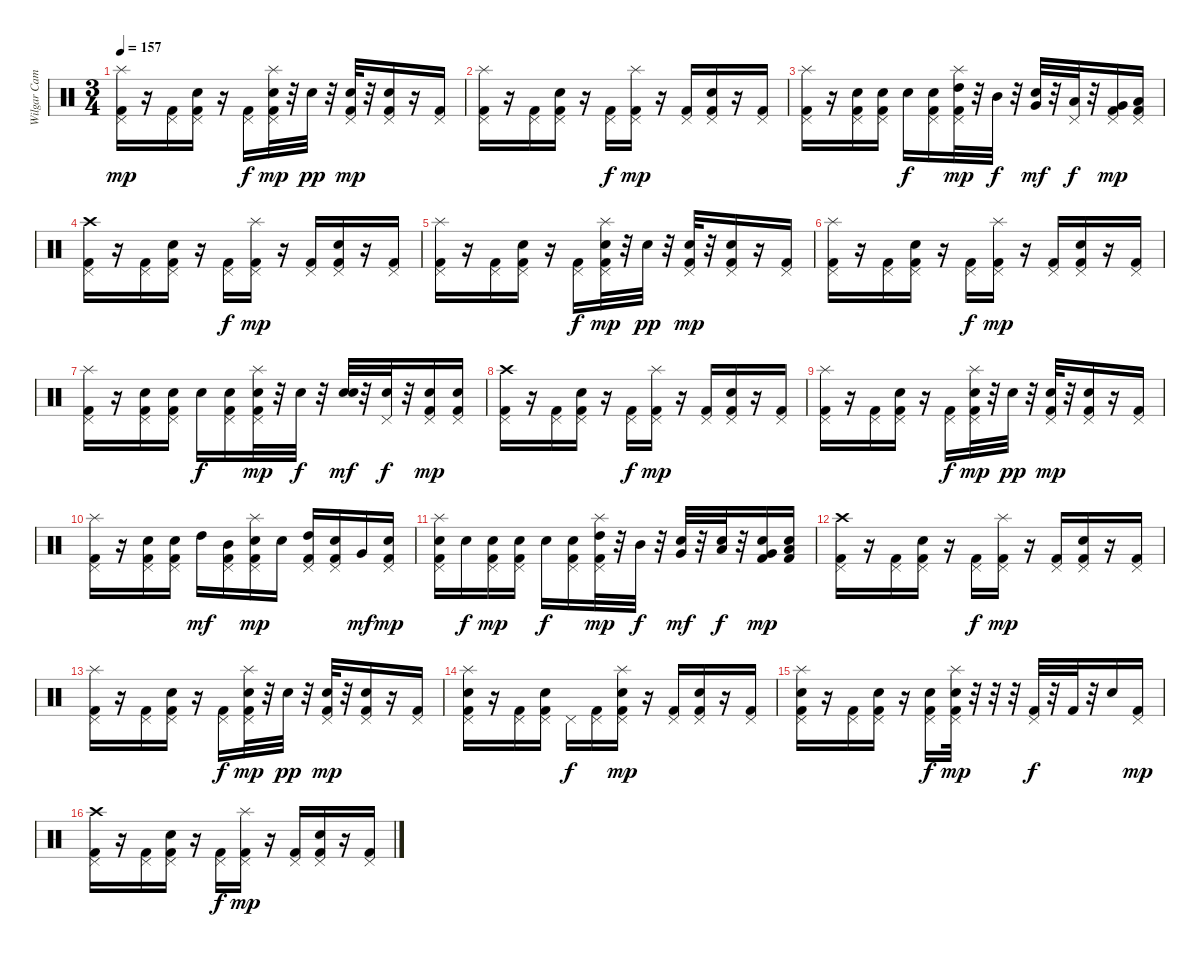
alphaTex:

\track ("Wilgar Campbell" "Wilgar Cam") {instrument percussion}
\staff {score}
\articulation defaults
\ts (3 4)
\tempo 157
\clef neutral
\ks c
("Splash (hit)" "Pedal Hi-Hat (hit)" "Kick (hit) 2").16{dy mp} r.16 ("Pedal Hi-Hat (hit)" "Kick (hit) 2").16 ("Snare (hit) 2" "Pedal Hi-Hat (hit)" "Kick (hit) 2").16 r.16 ("Pedal Hi-Hat (hit)" "Kick (hit) 2").16{dy f} ("Splash (hit)" "Pedal Hi-Hat (hit)" "Electric Snare (hit)" "Kick (hit) 2").32{dy mp} r.32 "Electric Snare (hit)".32{dy pp} r.32 ("Pedal Hi-Hat (hit)" "Electric Snare (hit)" "Kick (hit) 2").32{dy mp} r.32 ("Snare (hit) 2" "Pedal Hi-Hat (hit)" "Kick (hit) 2").16 r.16 ("Pedal Hi-Hat (hit)" "Kick (hit) 2").16 |
("Splash (hit)" "Pedal Hi-Hat (hit)" "Kick (hit) 2").16 r.16 ("Pedal Hi-Hat (hit)" "Kick (hit) 2").16 ("Snare (hit) 2" "Pedal Hi-Hat (hit)" "Kick (hit) 2").16 r.16 ("Pedal Hi-Hat (hit)" "Kick (hit) 2").16{dy f} ("Splash (hit)" "Pedal Hi-Hat (hit)" "Kick (hit) 2").16{dy mp} r.16 ("Pedal Hi-Hat (hit)" "Kick (hit) 2").16 ("Snare (hit) 2" "Pedal Hi-Hat (hit)" "Kick (hit) 2").16 r.16 ("Pedal Hi-Hat (hit)" "Kick (hit) 2").16 |
("Splash (hit)" "Pedal Hi-Hat (hit)" "Kick (hit) 2").16 r.16 ("Electric Snare (hit)" "Pedal Hi-Hat (hit)" "Kick (hit) 2").16 ("Snare (hit) 2" "Pedal Hi-Hat (hit)" "Kick (hit) 2").16 "Snare (hit) 2".16{dy f} ("Snare (hit) 2" "Pedal Hi-Hat (hit)" "Kick (hit) 2").16 ("Splash (hit)" "High Tom (hit)" "Pedal Hi-Hat (hit)" "Kick (hit) 2").32{dy mp} r.32 "Mid Tom (hit)".32{dy f} r.32 ("Very Low Tom (hit)" "Electric Snare (hit)").32{dy mf} r.32 ("Low Tom (hit)" "Pedal Hi-Hat (hit)").32{dy f} r.32 ("Very Low Tom (hit)" "Pedal Hi-Hat (hit)" "Kick (hit) 2").16{dy mp} ("Low Floor Tom (hit)" "Pedal Hi-Hat (hit)" "Kick (hit) 2").16 |
("Crash high (hit)" "Pedal Hi-Hat (hit)" "Kick (hit) 2").16 r.16 ("Pedal Hi-Hat (hit)" "Kick (hit) 2").16 ("Snare (hit) 2" "Pedal Hi-Hat (hit)" "Kick (hit) 2").16 r.16 ("Pedal Hi-Hat (hit)" "Kick (hit) 2").16{dy f} ("Splash (hit)" "Pedal Hi-Hat (hit)" "Kick (hit) 2").16{dy mp} r.16 ("Pedal Hi-Hat (hit)" "Kick (hit) 2").16 ("Snare (hit) 2" "Pedal Hi-Hat (hit)" "Kick (hit) 2").16 r.16 ("Pedal Hi-Hat (hit)" "Kick (hit) 2").16 |
("Splash (hit)" "Pedal Hi-Hat (hit)" "Kick (hit) 2").16 r.16 ("Pedal Hi-Hat (hit)" "Kick (hit) 2").16 ("Snare (hit) 2" "Pedal Hi-Hat (hit)" "Kick (hit) 2").16 r.16 ("Pedal Hi-Hat (hit)" "Kick (hit) 2").16{dy f} ("Splash (hit)" "Pedal Hi-Hat (hit)" "Electric Snare (hit)" "Kick (hit) 2").32{dy mp} r.32 "Electric Snare (hit)".32{dy pp} r.32 ("Pedal Hi-Hat (hit)" "Electric Snare (hit)" "Kick (hit) 2").32{dy mp} r.32 ("Snare (hit) 2" "Pedal Hi-Hat (hit)" "Kick (hit) 2").16 r.16 ("Pedal Hi-Hat (hit)" "Kick (hit) 2").16 |
("Splash (hit)" "Pedal Hi-Hat (hit)" "Kick (hit) 2").16 r.16 ("Pedal Hi-Hat (hit)" "Kick (hit) 2").16 ("Snare (hit) 2" "Pedal Hi-Hat (hit)" "Kick (hit) 2").16 r.16 ("Pedal Hi-Hat (hit)" "Kick (hit) 2").16{dy f} ("Splash (hit)" "Pedal Hi-Hat (hit)" "Kick (hit) 2").16{dy mp} r.16 ("Pedal Hi-Hat (hit)" "Kick (hit) 2").16 ("Snare (hit) 2" "Pedal Hi-Hat (hit)" "Kick (hit) 2").16 r.16 ("Pedal Hi-Hat (hit)" "Kick (hit) 2").16 |
("Splash (hit)" "Pedal Hi-Hat (hit)" "Kick (hit) 2").16 r.16 ("Electric Snare (hit)" "Pedal Hi-Hat (hit)" "Kick (hit) 2").16 ("Snare (hit) 2" "Pedal Hi-Hat (hit)" "Kick (hit) 2").16 "Snare (hit) 2".16{dy f} ("Snare (hit) 2" "Pedal Hi-Hat (hit)" "Kick (hit) 2").16 ("Splash (hit)" "Electric Snare (hit)" "Pedal Hi-Hat (hit)" "Kick (hit) 2").32{dy mp} r.32 "Electric Snare (hit)".32{dy f} r.32 ("Electric Snare (hit)" "Electric Snare (hit)").32{dy mf} r.32 ("Snare (hit) 2" "Pedal Hi-Hat (hit)").32{dy f} r.32 ("Electric Snare (hit)" "Pedal Hi-Hat (hit)" "Kick (hit) 2").16{dy mp} ("Electric Snare (hit)" "Pedal Hi-Hat (hit)" "Kick (hit) 2").16 |
("Crash high (hit)" "Pedal Hi-Hat (hit)" "Kick (hit) 2").16 r.16 ("Pedal Hi-Hat (hit)" "Kick (hit) 2").16 ("Snare (hit) 2" "Pedal Hi-Hat (hit)" "Kick (hit) 2").16 r.16 ("Pedal Hi-Hat (hit)" "Kick (hit) 2").16{dy f} ("Splash (hit)" "Pedal Hi-Hat (hit)" "Kick (hit) 2").16{dy mp} r.16 ("Pedal Hi-Hat (hit)" "Kick (hit) 2").16 ("Snare (hit) 2" "Pedal Hi-Hat (hit)" "Kick (hit) 2").16 r.16 ("Pedal Hi-Hat (hit)" "Kick (hit) 2").16 |
("Splash (hit)" "Pedal Hi-Hat (hit)" "Kick (hit) 2").16 r.16 ("Pedal Hi-Hat (hit)" "Kick (hit) 2").16 ("Snare (hit) 2" "Pedal Hi-Hat (hit)" "Kick (hit) 2").16 r.16 ("Pedal Hi-Hat (hit)" "Kick (hit) 2").16{dy f} ("Splash (hit)" "Pedal Hi-Hat (hit)" "Electric Snare (hit)" "Kick (hit) 2").32{dy mp} r.32 "Electric Snare (hit)".32{dy pp} r.32 ("Pedal Hi-Hat (hit)" "Electric Snare (hit)" "Kick (hit) 2").32{dy mp} r.32 ("Snare (hit) 2" "Pedal Hi-Hat (hit)" "Kick (hit) 2").16 r.16 ("Pedal Hi-Hat (hit)" "Kick (hit) 2").16 |
("Splash (hit)" "Pedal Hi-Hat (hit)" "Kick (hit) 2").16 r.16 ("Snare (hit) 2" "Pedal Hi-Hat (hit)" "Kick (hit) 2").16 ("Snare (hit) 2" "Pedal Hi-Hat (hit)" "Kick (hit) 2").16 "High Tom (hit)".16{dy mf} ("Mid Tom (hit)" "Pedal Hi-Hat (hit)" "Kick (hit) 2").16 ("Splash (hit)" "Electric Snare (hit)" "Pedal Hi-Hat (hit)" "Kick (hit) 2").16{dy mp} "Electric Snare (hit)".16 ("High Tom (hit)" "Pedal Hi-Hat (hit)" "Kick (hit) 2").16 ("Electric Snare (hit)" "Pedal Hi-Hat (hit)" "Kick (hit) 2").16 "Very Low Tom (hit)".16{dy mf} ("Electric Snare (hit)" "Pedal Hi-Hat (hit)" "Kick (hit) 2").16{dy mp} |
("Splash (hit)" "Electric Snare (hit)" "Pedal Hi-Hat (hit)" "Kick (hit) 2").16 "Electric Snare (hit)".16{dy f} ("Electric Snare (hit)" "Pedal Hi-Hat (hit)" "Kick (hit) 2").16{dy mp} ("Snare (hit) 2" "Pedal Hi-Hat (hit)" "Kick (hit) 2").16 "Snare (hit) 2".16{dy f} ("Snare (hit) 2" "Pedal Hi-Hat (hit)" "Kick (hit) 2").16 ("Splash (hit)" "High Tom (hit)" "Pedal Hi-Hat (hit)" "Kick (hit) 2").32{dy mp} r.32 "Mid Tom (hit)".32{dy f} r.32 ("Very Low Tom (hit)" "Electric Snare (hit)").32{dy mf} r.32 ("Low Tom (hit)" "Electric Snare (hit)").32{dy f} r.32 ("Very Low Tom (hit)" "Electric Snare (hit)" "Kick (hit) 2").16{dy mp} ("Low Floor Tom (hit)" "Snare (hit) 2" "Kick (hit) 2").16 |
("Crash high (hit)" "Pedal Hi-Hat (hit)" "Kick (hit) 2").16 r.16 ("Pedal Hi-Hat (hit)" "Kick (hit) 2").16 ("Snare (hit) 2" "Pedal Hi-Hat (hit)" "Kick (hit) 2").16 r.16 ("Pedal Hi-Hat (hit)" "Kick (hit) 2").16{dy f} ("Splash (hit)" "Pedal Hi-Hat (hit)" "Kick (hit) 2").16{dy mp} r.16 ("Pedal Hi-Hat (hit)" "Kick (hit) 2").16 ("Snare (hit) 2" "Pedal Hi-Hat (hit)" "Kick (hit) 2").16 r.16 ("Pedal Hi-Hat (hit)" "Kick (hit) 2").16 |
("Splash (hit)" "Pedal Hi-Hat (hit)" "Kick (hit) 2").16 r.16 ("Pedal Hi-Hat (hit)" "Kick (hit) 2").16 ("Snare (hit) 2" "Pedal Hi-Hat (hit)" "Kick (hit) 2").16 r.16 ("Pedal Hi-Hat (hit)" "Kick (hit) 2").16{dy f} ("Splash (hit)" "Pedal Hi-Hat (hit)" "Electric Snare (hit)" "Kick (hit) 2").32{dy mp} r.32 "Electric Snare (hit)".32{dy pp} r.32 ("Pedal Hi-Hat (hit)" "Electric Snare (hit)" "Kick (hit) 2").32{dy mp} r.32 ("Snare (hit) 2" "Pedal Hi-Hat (hit)" "Kick (hit) 2").16 r.16 ("Pedal Hi-Hat (hit)" "Kick (hit) 2").16 |
("Splash (hit)" "Snare (hit) 2" "Pedal Hi-Hat (hit)" "Kick (hit) 2").16 r.16 ("Pedal Hi-Hat (hit)" "Kick (hit) 2").16 ("Snare (hit) 2" "Pedal Hi-Hat (hit)" "Kick (hit) 2").16 "Pedal Hi-Hat (hit)".16{dy f} ("Pedal Hi-Hat (hit)" "Kick (hit) 2").16 ("Splash (hit)" "Snare (hit) 2" "Pedal Hi-Hat (hit)" "Kick (hit) 2").16{dy mp} r.16 ("Pedal Hi-Hat (hit)" "Kick (hit) 2").16 ("Snare (hit) 2" "Pedal Hi-Hat (hit)" "Kick (hit) 2").16 r.16 ("Pedal Hi-Hat (hit)" "Kick (hit) 2").16 |
("Splash (hit)" "Snare (hit) 2" "Pedal Hi-Hat (hit)" "Kick (hit) 2").16 r.16 ("Pedal Hi-Hat (hit)" "Kick (hit) 2").16 ("Snare (hit) 2" "Pedal Hi-Hat (hit)" "Kick (hit) 2").16 r.16 ("Snare (hit) 2" "Pedal Hi-Hat (hit)" "Kick (hit) 2").16{dy f} ("Splash (hit)" "Snare (hit) 2" "Pedal Hi-Hat (hit)" "Kick (hit) 2").32{dy mp} r.32 r.32 r.32 ("Pedal Hi-Hat (hit)" "Kick (hit) 2").32{dy f} r.32 "Kick (hit) 2".32 r.32 "Snare (hit) 2".16 ("Pedal Hi-Hat (hit)" "Kick (hit) 2").16{dy mp} |
("Crash high (hit)" "Pedal Hi-Hat (hit)" "Kick (hit) 2").16 r.16 ("Pedal Hi-Hat (hit)" "Kick (hit) 2").16 ("Snare (hit) 2" "Pedal Hi-Hat (hit)" "Kick (hit) 2").16 r.16 ("Pedal Hi-Hat (hit)" "Kick (hit) 2").16{dy f} ("Splash (hit)" "Pedal Hi-Hat (hit)" "Kick (hit) 2").16{dy mp} r.16 ("Pedal Hi-Hat (hit)" "Kick (hit) 2").16 ("Snare (hit) 2" "Pedal Hi-Hat (hit)" "Kick (hit) 2").16 r.16 ("Pedal Hi-Hat (hit)" "Kick (hit) 2").16
